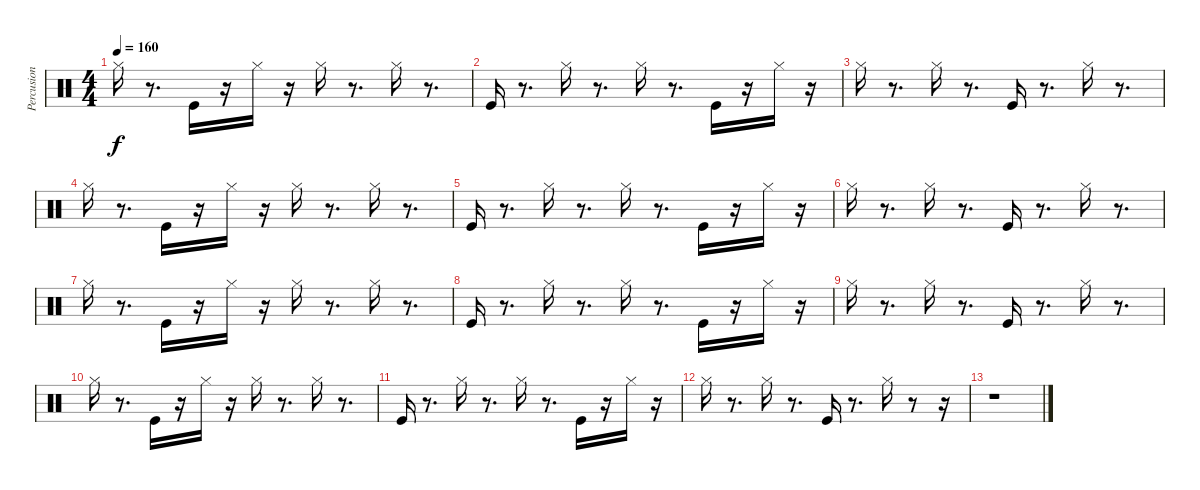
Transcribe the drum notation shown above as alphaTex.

\track ("Percusion" "Percusion") {instrument percussion}
\staff {score}
\articulation defaults
\ts (4 4)
\tempo 160
\clef neutral
\ks c "Hi-Hat (closed)".16{dy f}
r.8{d} "Kick (hit)".16 r.16 "Hi-Hat (closed)".16 r.16 "Hi-Hat (closed)".16 r.8{d} "Hi-Hat (closed)".16 r.8{d} |
"Kick (hit)".16 r.8{d} "Hi-Hat (closed)".16 r.8{d} "Hi-Hat (closed)".16 r.8{d} "Kick (hit)".16 r.16 "Hi-Hat (closed)".16 r.16 |
"Hi-Hat (closed)".16 r.8{d} "Hi-Hat (closed)".16 r.8{d} "Kick (hit)".16 r.8{d} "Hi-Hat (closed)".16 r.8{d} |
"Hi-Hat (closed)".16 r.8{d} "Kick (hit)".16 r.16 "Hi-Hat (closed)".16 r.16 "Hi-Hat (closed)".16 r.8{d} "Hi-Hat (closed)".16 r.8{d} |
"Kick (hit)".16 r.8{d} "Hi-Hat (closed)".16 r.8{d} "Hi-Hat (closed)".16 r.8{d} "Kick (hit)".16 r.16 "Hi-Hat (closed)".16 r.16 |
"Hi-Hat (closed)".16 r.8{d} "Hi-Hat (closed)".16 r.8{d} "Kick (hit)".16 r.8{d} "Hi-Hat (closed)".16 r.8{d} |
"Hi-Hat (closed)".16 r.8{d} "Kick (hit)".16 r.16 "Hi-Hat (closed)".16 r.16 "Hi-Hat (closed)".16 r.8{d} "Hi-Hat (closed)".16 r.8{d} |
"Kick (hit)".16 r.8{d} "Hi-Hat (closed)".16 r.8{d} "Hi-Hat (closed)".16 r.8{d} "Kick (hit)".16 r.16 "Hi-Hat (closed)".16 r.16 |
"Hi-Hat (closed)".16 r.8{d} "Hi-Hat (closed)".16 r.8{d} "Kick (hit)".16 r.8{d} "Hi-Hat (closed)".16 r.8{d} |
"Hi-Hat (closed)".16 r.8{d} "Kick (hit)".16 r.16 "Hi-Hat (closed)".16 r.16 "Hi-Hat (closed)".16 r.8{d} "Hi-Hat (closed)".16 r.8{d} |
"Kick (hit)".16 r.8{d} "Hi-Hat (closed)".16 r.8{d} "Hi-Hat (closed)".16 r.8{d} "Kick (hit)".16 r.16 "Hi-Hat (closed)".16 r.16 |
"Hi-Hat (closed)".16 r.8{d} "Hi-Hat (closed)".16 r.8{d} "Kick (hit)".16 r.8{d} "Hi-Hat (closed)".16 r.8 r.16 |
r.1
